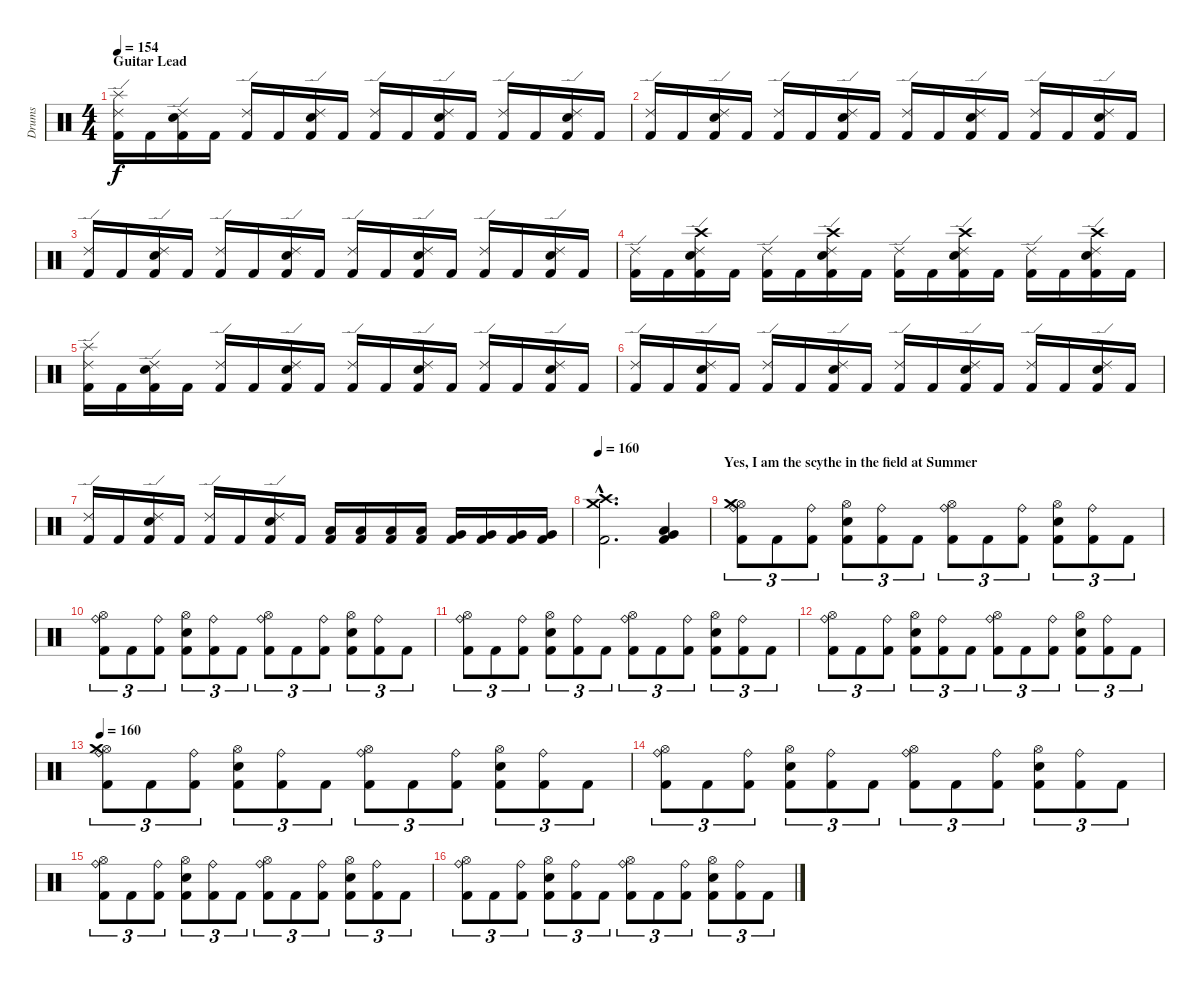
\track ("Drums" "Drums") {instrument percussion}
\staff {score}
\articulation defaults
\ts (4 4)
\section ("" "Guitar Lead")
\tempo 154
\clef neutral
\ks c
("Splash (hit)" "Ride (edge) 2" "Kick (hit) 2").16{dy f} "Kick (hit) 2".16 ("Ride (edge) 2" "Snare (hit) 2" "Kick (hit) 2").16 "Kick (hit) 2".16 ("Ride (edge) 2" "Kick (hit) 2").16 "Kick (hit) 2".16 ("Ride (edge) 2" "Snare (hit) 2" "Kick (hit) 2").16 "Kick (hit) 2".16 ("Ride (edge) 2" "Kick (hit) 2").16 "Kick (hit) 2".16 ("Ride (edge) 2" "Snare (hit) 2" "Kick (hit) 2").16 "Kick (hit) 2".16 ("Ride (edge) 2" "Kick (hit) 2").16 "Kick (hit) 2".16 ("Ride (edge) 2" "Snare (hit) 2" "Kick (hit) 2").16 "Kick (hit) 2".16 |
("Ride (edge) 2" "Kick (hit) 2").16 "Kick (hit) 2".16 ("Ride (edge) 2" "Snare (hit) 2" "Kick (hit) 2").16 "Kick (hit) 2".16 ("Ride (edge) 2" "Kick (hit) 2").16 "Kick (hit) 2".16 ("Ride (edge) 2" "Snare (hit) 2" "Kick (hit) 2").16 "Kick (hit) 2".16 ("Ride (edge) 2" "Kick (hit) 2").16 "Kick (hit) 2".16 ("Ride (edge) 2" "Snare (hit) 2" "Kick (hit) 2").16 "Kick (hit) 2".16 ("Ride (edge) 2" "Kick (hit) 2").16 "Kick (hit) 2".16 ("Ride (edge) 2" "Snare (hit) 2" "Kick (hit) 2").16 "Kick (hit) 2".16 |
("Ride (edge) 2" "Kick (hit) 2").16 "Kick (hit) 2".16 ("Ride (edge) 2" "Snare (hit) 2" "Kick (hit) 2").16 "Kick (hit) 2".16 ("Ride (edge) 2" "Kick (hit) 2").16 "Kick (hit) 2".16 ("Ride (edge) 2" "Snare (hit) 2" "Kick (hit) 2").16 "Kick (hit) 2".16 ("Ride (edge) 2" "Kick (hit) 2").16 "Kick (hit) 2".16 ("Ride (edge) 2" "Snare (hit) 2" "Kick (hit) 2").16 "Kick (hit) 2".16 ("Ride (edge) 2" "Kick (hit) 2").16 "Kick (hit) 2".16 ("Ride (edge) 2" "Snare (hit) 2" "Kick (hit) 2").16 "Kick (hit) 2".16 |
("Ride (edge) 2" "Kick (hit) 2").16 "Kick (hit) 2".16 ("Crash high (hit)" "Ride (edge) 2" "Snare (hit) 2" "Kick (hit) 2").16 "Kick (hit) 2".16 ("Ride (edge) 2" "Kick (hit) 2").16 "Kick (hit) 2".16 ("Crash high (hit)" "Ride (edge) 2" "Snare (hit) 2" "Kick (hit) 2").16 "Kick (hit) 2".16 ("Ride (edge) 2" "Kick (hit) 2").16 "Kick (hit) 2".16 ("Crash high (hit)" "Ride (edge) 2" "Snare (hit) 2" "Kick (hit) 2").16 "Kick (hit) 2".16 ("Ride (edge) 2" "Kick (hit) 2").16 "Kick (hit) 2".16 ("Crash high (hit)" "Ride (edge) 2" "Snare (hit) 2" "Kick (hit) 2").16 "Kick (hit) 2".16 |
("Splash (hit)" "Ride (edge) 2" "Kick (hit) 2").16 "Kick (hit) 2".16 ("Ride (edge) 2" "Snare (hit) 2" "Kick (hit) 2").16 "Kick (hit) 2".16 ("Ride (edge) 2" "Kick (hit) 2").16 "Kick (hit) 2".16 ("Ride (edge) 2" "Snare (hit) 2" "Kick (hit) 2").16 "Kick (hit) 2".16 ("Ride (edge) 2" "Kick (hit) 2").16 "Kick (hit) 2".16 ("Ride (edge) 2" "Snare (hit) 2" "Kick (hit) 2").16 "Kick (hit) 2".16 ("Ride (edge) 2" "Kick (hit) 2").16 "Kick (hit) 2".16 ("Ride (edge) 2" "Snare (hit) 2" "Kick (hit) 2").16 "Kick (hit) 2".16 |
("Ride (edge) 2" "Kick (hit) 2").16 "Kick (hit) 2".16 ("Ride (edge) 2" "Snare (hit) 2" "Kick (hit) 2").16 "Kick (hit) 2".16 ("Ride (edge) 2" "Kick (hit) 2").16 "Kick (hit) 2".16 ("Ride (edge) 2" "Snare (hit) 2" "Kick (hit) 2").16 "Kick (hit) 2".16 ("Ride (edge) 2" "Kick (hit) 2").16 "Kick (hit) 2".16 ("Ride (edge) 2" "Snare (hit) 2" "Kick (hit) 2").16 "Kick (hit) 2".16 ("Ride (edge) 2" "Kick (hit) 2").16 "Kick (hit) 2".16 ("Ride (edge) 2" "Snare (hit) 2" "Kick (hit) 2").16 "Kick (hit) 2".16 |
("Ride (edge) 2" "Kick (hit) 2").16 "Kick (hit) 2".16 ("Ride (edge) 2" "Snare (hit) 2" "Kick (hit) 2").16 "Kick (hit) 2".16 ("Ride (edge) 2" "Kick (hit) 2").16 "Kick (hit) 2".16 ("Ride (edge) 2" "Snare (hit) 2" "Kick (hit) 2").16 "Kick (hit) 2".16 ("Low Tom (hit)" "Kick (hit) 2").16 ("Low Tom (hit)" "Kick (hit) 2").16 ("Low Tom (hit)" "Kick (hit) 2").16 ("Low Tom (hit)" "Kick (hit) 2").16 ("Very Low Tom (hit)" "Kick (hit) 2").16 ("Very Low Tom (hit)" "Kick (hit) 2").16 ("Very Low Tom (hit)" "Kick (hit) 2").16 ("Very Low Tom (hit)" "Kick (hit) 2").16 |
\tempo 160
("Crash medium (hit)"{hac} "Crash high (hit)"{hac} "Kick (hit) 2"{hac}).2{d} ("Low Tom (hit)" "Very Low Tom (hit)" "Kick (hit) 2").4 |
\section ("" "Yes, I am the scythe in the field at Summer")
("Ride (bell)" "Hi-Hat (open)" "Crash medium (hit)" "Kick (hit) 2").8{tu (3 2)} "Kick (hit) 2".8{tu (3 2)} ("Ride (bell)" "Kick (hit) 2").8{tu (3 2)} ("Hi-Hat (open)" "Snare (hit) 2" "Kick (hit) 2").8{tu (3 2)} ("Ride (bell)" "Kick (hit) 2").8{tu (3 2)} "Kick (hit) 2".8{tu (3 2)} ("Ride (bell)" "Hi-Hat (open)" "Kick (hit) 2").8{tu (3 2)} "Kick (hit) 2".8{tu (3 2)} ("Ride (bell)" "Kick (hit) 2").8{tu (3 2)} ("Hi-Hat (open)" "Snare (hit) 2" "Kick (hit) 2").8{tu (3 2)} ("Ride (bell)" "Kick (hit) 2").8{tu (3 2)} "Kick (hit) 2".8{tu (3 2)} |
("Ride (bell)" "Hi-Hat (open)" "Kick (hit) 2").8{tu (3 2)} "Kick (hit) 2".8{tu (3 2)} ("Ride (bell)" "Kick (hit) 2").8{tu (3 2)} ("Hi-Hat (open)" "Snare (hit) 2" "Kick (hit) 2").8{tu (3 2)} ("Ride (bell)" "Kick (hit) 2").8{tu (3 2)} "Kick (hit) 2".8{tu (3 2)} ("Ride (bell)" "Hi-Hat (open)" "Kick (hit) 2").8{tu (3 2)} "Kick (hit) 2".8{tu (3 2)} ("Ride (bell)" "Kick (hit) 2").8{tu (3 2)} ("Hi-Hat (open)" "Snare (hit) 2" "Kick (hit) 2").8{tu (3 2)} ("Ride (bell)" "Kick (hit) 2").8{tu (3 2)} "Kick (hit) 2".8{tu (3 2)} |
("Ride (bell)" "Hi-Hat (open)" "Kick (hit) 2").8{tu (3 2)} "Kick (hit) 2".8{tu (3 2)} ("Ride (bell)" "Kick (hit) 2").8{tu (3 2)} ("Hi-Hat (open)" "Snare (hit) 2" "Kick (hit) 2").8{tu (3 2)} ("Ride (bell)" "Kick (hit) 2").8{tu (3 2)} "Kick (hit) 2".8{tu (3 2)} ("Ride (bell)" "Hi-Hat (open)" "Kick (hit) 2").8{tu (3 2)} "Kick (hit) 2".8{tu (3 2)} ("Ride (bell)" "Kick (hit) 2").8{tu (3 2)} ("Hi-Hat (open)" "Snare (hit) 2" "Kick (hit) 2").8{tu (3 2)} ("Ride (bell)" "Kick (hit) 2").8{tu (3 2)} "Kick (hit) 2".8{tu (3 2)} |
("Ride (bell)" "Hi-Hat (open)" "Kick (hit) 2").8{tu (3 2)} "Kick (hit) 2".8{tu (3 2)} ("Ride (bell)" "Kick (hit) 2").8{tu (3 2)} ("Hi-Hat (open)" "Snare (hit) 2" "Kick (hit) 2").8{tu (3 2)} ("Ride (bell)" "Kick (hit) 2").8{tu (3 2)} "Kick (hit) 2".8{tu (3 2)} ("Ride (bell)" "Hi-Hat (open)" "Kick (hit) 2").8{tu (3 2)} "Kick (hit) 2".8{tu (3 2)} ("Ride (bell)" "Kick (hit) 2").8{tu (3 2)} ("Hi-Hat (open)" "Snare (hit) 2" "Kick (hit) 2").8{tu (3 2)} ("Ride (bell)" "Kick (hit) 2").8{tu (3 2)} "Kick (hit) 2".8{tu (3 2)} |
\tempo 160
("Ride (bell)" "Hi-Hat (open)" "Crash medium (hit)" "Kick (hit) 2").8{tu (3 2)} "Kick (hit) 2".8{tu (3 2)} ("Ride (bell)" "Kick (hit) 2").8{tu (3 2)} ("Hi-Hat (open)" "Snare (hit) 2" "Kick (hit) 2").8{tu (3 2)} ("Ride (bell)" "Kick (hit) 2").8{tu (3 2)} "Kick (hit) 2".8{tu (3 2)} ("Ride (bell)" "Hi-Hat (open)" "Kick (hit) 2").8{tu (3 2)} "Kick (hit) 2".8{tu (3 2)} ("Ride (bell)" "Kick (hit) 2").8{tu (3 2)} ("Hi-Hat (open)" "Snare (hit) 2" "Kick (hit) 2").8{tu (3 2)} ("Ride (bell)" "Kick (hit) 2").8{tu (3 2)} "Kick (hit) 2".8{tu (3 2)} |
("Ride (bell)" "Hi-Hat (open)" "Kick (hit) 2").8{tu (3 2)} "Kick (hit) 2".8{tu (3 2)} ("Ride (bell)" "Kick (hit) 2").8{tu (3 2)} ("Hi-Hat (open)" "Snare (hit) 2" "Kick (hit) 2").8{tu (3 2)} ("Ride (bell)" "Kick (hit) 2").8{tu (3 2)} "Kick (hit) 2".8{tu (3 2)} ("Ride (bell)" "Hi-Hat (open)" "Kick (hit) 2").8{tu (3 2)} "Kick (hit) 2".8{tu (3 2)} ("Ride (bell)" "Kick (hit) 2").8{tu (3 2)} ("Hi-Hat (open)" "Snare (hit) 2" "Kick (hit) 2").8{tu (3 2)} ("Ride (bell)" "Kick (hit) 2").8{tu (3 2)} "Kick (hit) 2".8{tu (3 2)} |
("Ride (bell)" "Hi-Hat (open)" "Kick (hit) 2").8{tu (3 2)} "Kick (hit) 2".8{tu (3 2)} ("Ride (bell)" "Kick (hit) 2").8{tu (3 2)} ("Hi-Hat (open)" "Snare (hit) 2" "Kick (hit) 2").8{tu (3 2)} ("Ride (bell)" "Kick (hit) 2").8{tu (3 2)} "Kick (hit) 2".8{tu (3 2)} ("Ride (bell)" "Hi-Hat (open)" "Kick (hit) 2").8{tu (3 2)} "Kick (hit) 2".8{tu (3 2)} ("Ride (bell)" "Kick (hit) 2").8{tu (3 2)} ("Hi-Hat (open)" "Snare (hit) 2" "Kick (hit) 2").8{tu (3 2)} ("Ride (bell)" "Kick (hit) 2").8{tu (3 2)} "Kick (hit) 2".8{tu (3 2)} |
("Ride (bell)" "Hi-Hat (open)" "Kick (hit) 2").8{tu (3 2)} "Kick (hit) 2".8{tu (3 2)} ("Ride (bell)" "Kick (hit) 2").8{tu (3 2)} ("Hi-Hat (open)" "Snare (hit) 2" "Kick (hit) 2").8{tu (3 2)} ("Ride (bell)" "Kick (hit) 2").8{tu (3 2)} "Kick (hit) 2".8{tu (3 2)} ("Ride (bell)" "Hi-Hat (open)" "Kick (hit) 2").8{tu (3 2)} "Kick (hit) 2".8{tu (3 2)} ("Ride (bell)" "Kick (hit) 2").8{tu (3 2)} ("Hi-Hat (open)" "Snare (hit) 2" "Kick (hit) 2").8{tu (3 2)} ("Ride (bell)" "Kick (hit) 2").8{tu (3 2)} "Kick (hit) 2".8{tu (3 2)}
